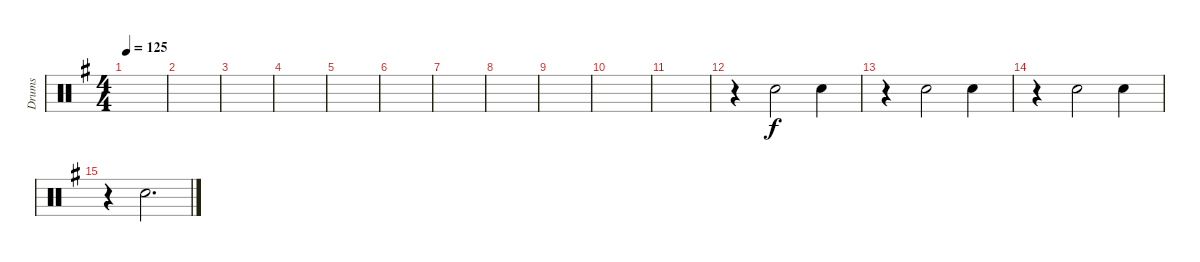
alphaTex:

\defaultSystemsLayout 4
\bracketExtendMode groupsimilarinstruments
\otherSystemsTrackNameOrientation horizontal
\track ("Drumkit" "Drums") {instrument percussion}
\staff {score}
\articulation defaults
\ts (4 4)
\tempo 125
\clef neutral
\scale
0.333333
\ks g
|
\scale
0.333333 |
\scale
0.333333 |
\scale
0.333333 |
\scale
0.333333 |
\scale
0.333333 |
\scale
0.333333 |
\scale
0.333333 |
\scale
0.333333 |
\scale
0.333333 |
\scale
0.333333 |
\scale
0.333333 r.4{beam Down} "Snare (hit) 2"{acc forcenatural}.2{beam Down} "Snare (hit) 2"{acc forcenatural}.4{beam Down} |
\scale
0.333333 r.4{beam Down} "Snare (hit) 2"{acc forcenatural}.2{beam Down} "Snare (hit) 2"{acc forcenatural}.4{beam Down} |
\scale
0.333333 r.4{beam Down} "Snare (hit) 2"{acc forcenatural}.2{beam Down} "Snare (hit) 2"{acc forcenatural}.4{beam Down} |
\scale
0.333333 r.4{beam Down} "Snare (hit) 2"{acc forcenatural}.2{d beam Down} |
\scale
0.333333
